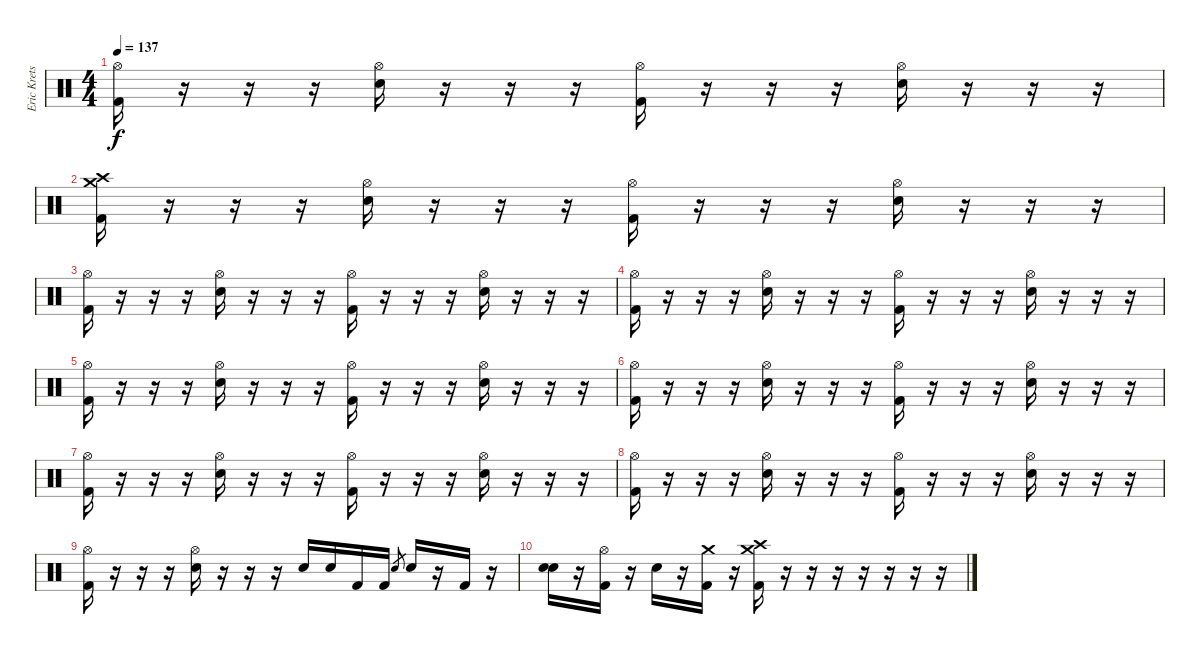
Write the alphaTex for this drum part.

\track ("Eric Krets" "Eric Krets") {instrument percussion}
\staff {score}
\articulation defaults
\ts (4 4)
\tempo 137
\clef neutral
\ks c
("Hi-Hat (open)" "Kick (hit) 2").16{dy f} r.16 r.16 r.16 ("Hi-Hat (open)" "Electric Snare (hit)").16 r.16 r.16 r.16 ("Hi-Hat (open)" "Kick (hit) 2").16 r.16 r.16 r.16 ("Hi-Hat (open)" "Electric Snare (hit)").16 r.16 r.16 r.16 |
("Crash high (hit)" "Crash medium (hit)" "Kick (hit) 2").16{volume 16} r.16 r.16 r.16 ("Hi-Hat (open)" "Electric Snare (hit)").16 r.16 r.16 r.16 ("Hi-Hat (open)" "Kick (hit) 2").16 r.16 r.16 r.16 ("Hi-Hat (open)" "Electric Snare (hit)").16 r.16 r.16 r.16 |
("Hi-Hat (open)" "Kick (hit) 2").16 r.16 r.16 r.16 ("Hi-Hat (open)" "Electric Snare (hit)").16 r.16 r.16 r.16 ("Hi-Hat (open)" "Kick (hit) 2").16 r.16 r.16 r.16 ("Hi-Hat (open)" "Electric Snare (hit)").16 r.16 r.16 r.16 |
("Hi-Hat (open)" "Kick (hit) 2").16 r.16 r.16 r.16 ("Hi-Hat (open)" "Electric Snare (hit)").16 r.16 r.16 r.16 ("Hi-Hat (open)" "Kick (hit) 2").16 r.16 r.16 r.16 ("Hi-Hat (open)" "Electric Snare (hit)").16 r.16 r.16 r.16 |
("Hi-Hat (open)" "Kick (hit) 2").16 r.16 r.16 r.16 ("Hi-Hat (open)" "Electric Snare (hit)").16 r.16 r.16 r.16 ("Hi-Hat (open)" "Kick (hit) 2").16 r.16 r.16 r.16 ("Hi-Hat (open)" "Electric Snare (hit)").16 r.16 r.16 r.16 |
("Hi-Hat (open)" "Kick (hit) 2").16 r.16 r.16 r.16 ("Hi-Hat (open)" "Electric Snare (hit)").16 r.16 r.16 r.16 ("Hi-Hat (open)" "Kick (hit) 2").16 r.16 r.16 r.16 ("Hi-Hat (open)" "Electric Snare (hit)").16 r.16 r.16 r.16 |
("Hi-Hat (open)" "Kick (hit) 2").16 r.16 r.16 r.16 ("Hi-Hat (open)" "Electric Snare (hit)").16 r.16 r.16 r.16 ("Hi-Hat (open)" "Kick (hit) 2").16 r.16 r.16 r.16 ("Hi-Hat (open)" "Electric Snare (hit)").16 r.16 r.16 r.16 |
("Hi-Hat (open)" "Kick (hit) 2").16 r.16 r.16 r.16 ("Hi-Hat (open)" "Electric Snare (hit)").16 r.16 r.16 r.16 ("Hi-Hat (open)" "Kick (hit) 2").16 r.16 r.16 r.16 ("Hi-Hat (open)" "Electric Snare (hit)").16 r.16 r.16 r.16 |
("Hi-Hat (open)" "Kick (hit) 2").16 r.16 r.16 r.16 ("Hi-Hat (open)" "Electric Snare (hit)").16 r.16 r.16 r.16 "Electric Snare (hit)".16 "Electric Snare (hit)".16 "Kick (hit) 2".16 "Kick (hit) 2".16 "Electric Snare (hit)".8{gr} "Electric Snare (hit)".16 r.16 "Kick (hit) 2".16 r.16 |
("Electric Snare (hit)" "Electric Snare (hit)").16 r.16 ("Hi-Hat (open)" "Kick (hit) 2").16 r.16 "Electric Snare (hit)".16 r.16 ("Crash medium (hit)" "Kick (hit) 2").16 r.16 ("Crash high (hit)" "Crash medium (hit)" "Kick (hit) 2").16 r.16 r.16 r.16 r.16 r.16 r.16 r.16
